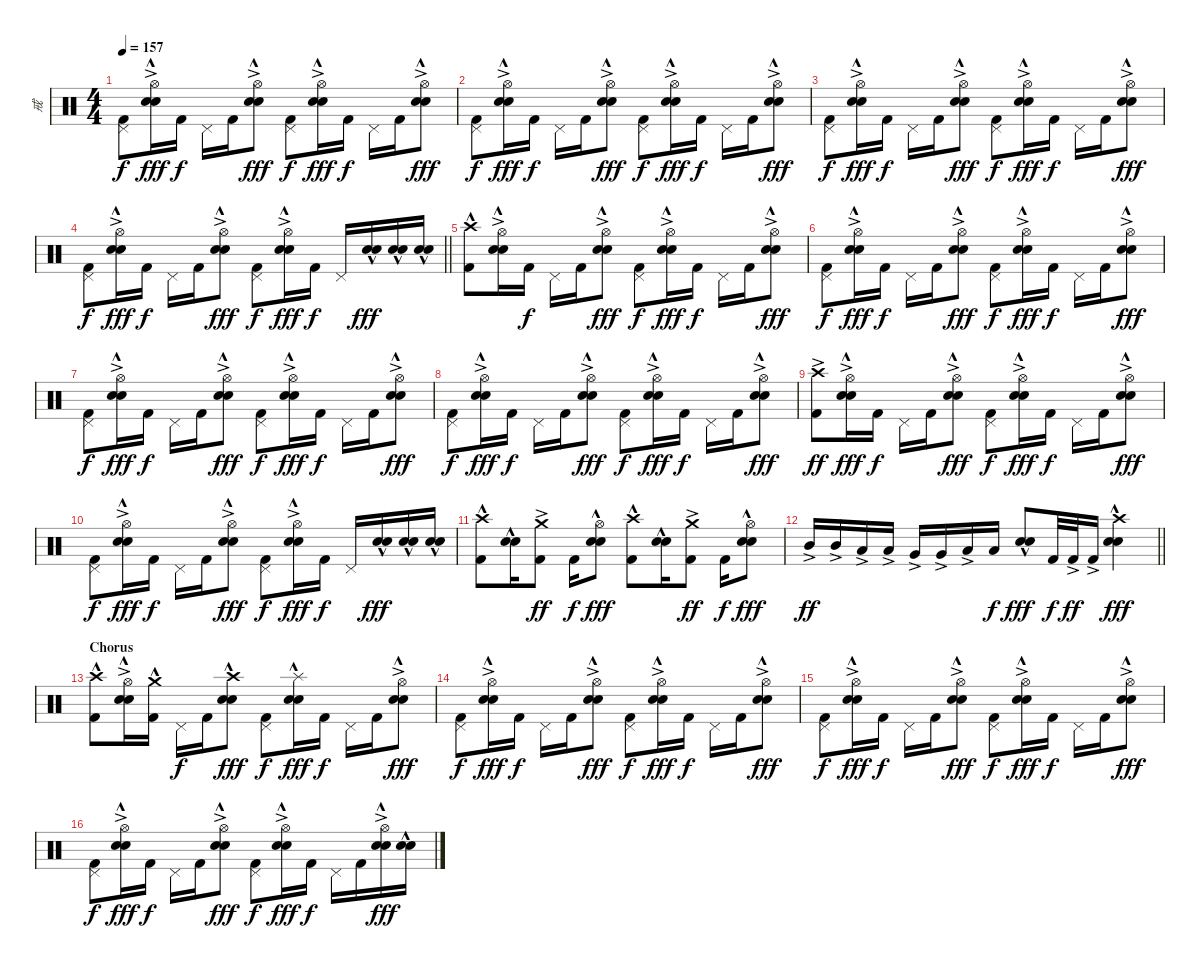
\track ("戒" "戒") {instrument percussion}
\staff {score}
\articulation defaults
\ts (4 4)
\tempo 157
\clef neutral
\ks c
("Pedal Hi-Hat (hit)" "Kick (hit) 2").8{dy f} ("Hi-Hat (open)"{ac} "Electric Snare (hit)"{hac} "Snare (hit) 2").16{dy fff} "Kick (hit) 2".16{dy f} "Pedal Hi-Hat (hit)".16 "Kick (hit) 2".16 ("Hi-Hat (open)"{ac} "Electric Snare (hit)"{hac} "Snare (hit) 2").8{dy fff} ("Pedal Hi-Hat (hit)" "Kick (hit) 2").8{dy f} ("Hi-Hat (open)"{ac} "Electric Snare (hit)"{hac} "Snare (hit) 2").16{dy fff} "Kick (hit) 2".16{dy f} "Pedal Hi-Hat (hit)".16 "Kick (hit) 2".16 ("Hi-Hat (open)"{ac} "Electric Snare (hit)"{hac} "Snare (hit) 2").8{dy fff} |
("Pedal Hi-Hat (hit)" "Kick (hit) 2").8{dy f} ("Hi-Hat (open)"{ac} "Electric Snare (hit)"{hac} "Snare (hit) 2").16{dy fff} "Kick (hit) 2".16{dy f} "Pedal Hi-Hat (hit)".16 "Kick (hit) 2".16 ("Hi-Hat (open)"{ac} "Electric Snare (hit)"{hac} "Snare (hit) 2").8{dy fff} ("Pedal Hi-Hat (hit)" "Kick (hit) 2").8{dy f} ("Hi-Hat (open)"{ac} "Electric Snare (hit)"{hac} "Snare (hit) 2").16{dy fff} "Kick (hit) 2".16{dy f} "Pedal Hi-Hat (hit)".16 "Kick (hit) 2".16 ("Hi-Hat (open)"{ac} "Electric Snare (hit)"{hac} "Snare (hit) 2").8{dy fff} |
("Pedal Hi-Hat (hit)" "Kick (hit) 2").8{dy f} ("Hi-Hat (open)"{ac} "Electric Snare (hit)"{hac} "Snare (hit) 2").16{dy fff} "Kick (hit) 2".16{dy f} "Pedal Hi-Hat (hit)".16 "Kick (hit) 2".16 ("Hi-Hat (open)"{ac} "Electric Snare (hit)"{hac} "Snare (hit) 2").8{dy fff} ("Pedal Hi-Hat (hit)" "Kick (hit) 2").8{dy f} ("Hi-Hat (open)"{ac} "Electric Snare (hit)"{hac} "Snare (hit) 2").16{dy fff} "Kick (hit) 2".16{dy f} "Pedal Hi-Hat (hit)".16 "Kick (hit) 2".16 ("Hi-Hat (open)"{ac} "Electric Snare (hit)"{hac} "Snare (hit) 2").8{dy fff} |
\barLineRight lightlight
("Pedal Hi-Hat (hit)" "Kick (hit) 2").8{dy f} ("Hi-Hat (open)"{ac} "Electric Snare (hit)"{hac} "Snare (hit) 2").16{dy fff} "Kick (hit) 2".16{dy f} "Pedal Hi-Hat (hit)".16 "Kick (hit) 2".16 ("Hi-Hat (open)"{ac} "Electric Snare (hit)"{hac} "Snare (hit) 2").8{dy fff} ("Pedal Hi-Hat (hit)" "Kick (hit) 2").8{dy f} ("Hi-Hat (open)"{ac} "Electric Snare (hit)"{hac} "Snare (hit) 2").16{dy fff} "Kick (hit) 2".16{dy f} "Pedal Hi-Hat (hit)".16 ("Electric Snare (hit)"{hac} "Snare (hit) 2").16{dy fff} ("Electric Snare (hit)"{hac} "Snare (hit) 2").16 ("Electric Snare (hit)"{hac} "Snare (hit) 2").16 |
\section ("" "")
("Crash high (hit)"{hac} "Kick (hit) 2").8 ("Hi-Hat (open)"{ac} "Electric Snare (hit)"{hac} "Snare (hit) 2").16 "Kick (hit) 2".16{dy f} "Pedal Hi-Hat (hit)".16 "Kick (hit) 2".16 ("Hi-Hat (open)"{ac} "Electric Snare (hit)"{hac} "Snare (hit) 2").8{dy fff} ("Pedal Hi-Hat (hit)" "Kick (hit) 2").8{dy f} ("Hi-Hat (open)"{ac} "Electric Snare (hit)"{hac} "Snare (hit) 2").16{dy fff} "Kick (hit) 2".16{dy f} "Pedal Hi-Hat (hit)".16 "Kick (hit) 2".16 ("Hi-Hat (open)"{ac} "Electric Snare (hit)"{hac} "Snare (hit) 2").8{dy fff} |
("Pedal Hi-Hat (hit)" "Kick (hit) 2").8{dy f} ("Hi-Hat (open)"{ac} "Electric Snare (hit)"{hac} "Snare (hit) 2").16{dy fff} "Kick (hit) 2".16{dy f} "Pedal Hi-Hat (hit)".16 "Kick (hit) 2".16 ("Hi-Hat (open)"{ac} "Electric Snare (hit)"{hac} "Snare (hit) 2").8{dy fff} ("Pedal Hi-Hat (hit)" "Kick (hit) 2").8{dy f} ("Hi-Hat (open)"{ac} "Electric Snare (hit)"{hac} "Snare (hit) 2").16{dy fff} "Kick (hit) 2".16{dy f} "Pedal Hi-Hat (hit)".16 "Kick (hit) 2".16 ("Hi-Hat (open)"{ac} "Electric Snare (hit)"{hac} "Snare (hit) 2").8{dy fff} |
("Pedal Hi-Hat (hit)" "Kick (hit) 2").8{dy f} ("Hi-Hat (open)"{ac} "Electric Snare (hit)"{hac} "Snare (hit) 2").16{dy fff} "Kick (hit) 2".16{dy f} "Pedal Hi-Hat (hit)".16 "Kick (hit) 2".16 ("Hi-Hat (open)"{ac} "Electric Snare (hit)"{hac} "Snare (hit) 2").8{dy fff} ("Pedal Hi-Hat (hit)" "Kick (hit) 2").8{dy f} ("Hi-Hat (open)"{ac} "Electric Snare (hit)"{hac} "Snare (hit) 2").16{dy fff} "Kick (hit) 2".16{dy f} "Pedal Hi-Hat (hit)".16 "Kick (hit) 2".16 ("Hi-Hat (open)"{ac} "Electric Snare (hit)"{hac} "Snare (hit) 2").8{dy fff} |
("Pedal Hi-Hat (hit)" "Kick (hit) 2").8{dy f} ("Hi-Hat (open)"{ac} "Electric Snare (hit)"{hac} "Snare (hit) 2").16{dy fff} "Kick (hit) 2".16{dy f} "Pedal Hi-Hat (hit)".16 "Kick (hit) 2".16 ("Hi-Hat (open)"{ac} "Electric Snare (hit)"{hac} "Snare (hit) 2").8{dy fff} ("Pedal Hi-Hat (hit)" "Kick (hit) 2").8{dy f} ("Hi-Hat (open)"{ac} "Electric Snare (hit)"{hac} "Snare (hit) 2").16{dy fff} "Kick (hit) 2".16{dy f} "Pedal Hi-Hat (hit)".16 "Kick (hit) 2".16 ("Hi-Hat (open)"{ac} "Electric Snare (hit)"{hac} "Snare (hit) 2").8{dy fff} |
("Crash high (hit)"{ac} "Kick (hit) 2").8{dy ff} ("Hi-Hat (open)"{ac} "Electric Snare (hit)"{hac} "Snare (hit) 2").16{dy fff} "Kick (hit) 2".16{dy f} "Pedal Hi-Hat (hit)".16 "Kick (hit) 2".16 ("Hi-Hat (open)"{ac} "Electric Snare (hit)"{hac} "Snare (hit) 2").8{dy fff} ("Pedal Hi-Hat (hit)" "Kick (hit) 2").8{dy f} ("Hi-Hat (open)"{ac} "Electric Snare (hit)"{hac} "Snare (hit) 2").16{dy fff} "Kick (hit) 2".16{dy f} "Pedal Hi-Hat (hit)".16 "Kick (hit) 2".16 ("Hi-Hat (open)"{ac} "Electric Snare (hit)"{hac} "Snare (hit) 2").8{dy fff} |
("Pedal Hi-Hat (hit)" "Kick (hit) 2").8{dy f} ("Hi-Hat (open)"{ac} "Electric Snare (hit)"{hac} "Snare (hit) 2").16{dy fff} "Kick (hit) 2".16{dy f} "Pedal Hi-Hat (hit)".16 "Kick (hit) 2".16 ("Hi-Hat (open)"{ac} "Electric Snare (hit)"{hac} "Snare (hit) 2").8{dy fff} ("Pedal Hi-Hat (hit)" "Kick (hit) 2").8{dy f} ("Hi-Hat (open)"{ac} "Electric Snare (hit)"{hac} "Snare (hit) 2").16{dy fff} "Kick (hit) 2".16{dy f} "Pedal Hi-Hat (hit)".16 ("Electric Snare (hit)"{hac} "Snare (hit) 2").16{dy fff} ("Electric Snare (hit)"{hac} "Snare (hit) 2").16 ("Electric Snare (hit)"{hac} "Snare (hit) 2").16 |
("Crash high (hit)"{hac} "Kick (hit) 2").8 ("Electric Snare (hit)"{hac} "Snare (hit) 2").16 ("Crash medium (hit)"{ac} "Kick (hit) 2").8{dy ff} "Kick (hit) 2".16{dy f} ("Hi-Hat (open)" "Electric Snare (hit)"{hac} "Snare (hit) 2").8{dy fff} ("Crash high (hit)"{hac} "Kick (hit) 2").8 ("Electric Snare (hit)"{hac} "Snare (hit) 2").16 ("Crash medium (hit)"{ac} "Kick (hit) 2").8{dy ff} "Kick (hit) 2".16{dy f} ("Hi-Hat (open)" "Electric Snare (hit)"{hac} "Snare (hit) 2").8{dy fff} |
\barLineRight lightlight "Mid Tom (hit)"{ac}.16{dy ff} "Mid Tom (hit)"{ac}.16 "Low Tom (hit)"{ac}.16 "Low Tom (hit)"{ac}.16 "Very Low Tom (hit)"{ac}.16 "Very Low Tom (hit)"{ac}.16 "Low Floor Tom (hit)"{ac}.16 "Low Floor Tom (hit)".16{dy f}
("Electric Snare (hit)"{hac} "Snare (hit) 2").8{dy fff} "Kick (hit) 2".32{dy f} "Kick (hit) 2"{ac}.32{dy ff} "Kick (hit) 2"{ac}.16 ("Crash high (hit)" "Electric Snare (hit)"{hac} "Snare (hit) 2").4{dy fff} |
\section ("" "Chorus")
("Crash high (hit)"{hac} "Kick (hit) 2").8 ("Hi-Hat (open)"{ac} "Electric Snare (hit)"{hac} "Snare (hit) 2").16 ("Crash medium (hit)"{hac} "Kick (hit) 2").16 "Pedal Hi-Hat (hit)".16{dy f} "Kick (hit) 2".16 ("Crash high (hit)"{hac} "Electric Snare (hit)"{hac} "Snare (hit) 2").8{dy fff} ("Pedal Hi-Hat (hit)" "Kick (hit) 2").8{dy f} ("Splash (hit)"{hac} "Electric Snare (hit)"{hac} "Snare (hit) 2").16{dy fff} "Kick (hit) 2".16{dy f} "Pedal Hi-Hat (hit)".16 "Kick (hit) 2".16 ("Hi-Hat (open)"{ac} "Electric Snare (hit)"{hac} "Snare (hit) 2").8{dy fff} |
("Pedal Hi-Hat (hit)" "Kick (hit) 2").8{dy f} ("Hi-Hat (open)"{ac} "Electric Snare (hit)"{hac} "Snare (hit) 2").16{dy fff} "Kick (hit) 2".16{dy f} "Pedal Hi-Hat (hit)".16 "Kick (hit) 2".16 ("Hi-Hat (open)"{ac} "Electric Snare (hit)"{hac} "Snare (hit) 2").8{dy fff} ("Pedal Hi-Hat (hit)" "Kick (hit) 2").8{dy f} ("Hi-Hat (open)"{ac} "Electric Snare (hit)"{hac} "Snare (hit) 2").16{dy fff} "Kick (hit) 2".16{dy f} "Pedal Hi-Hat (hit)".16 "Kick (hit) 2".16 ("Hi-Hat (open)"{ac} "Electric Snare (hit)"{hac} "Snare (hit) 2").8{dy fff} |
("Pedal Hi-Hat (hit)" "Kick (hit) 2").8{dy f} ("Hi-Hat (open)"{ac} "Electric Snare (hit)"{hac} "Snare (hit) 2").16{dy fff} "Kick (hit) 2".16{dy f} "Pedal Hi-Hat (hit)".16 "Kick (hit) 2".16 ("Hi-Hat (open)"{ac} "Electric Snare (hit)"{hac} "Snare (hit) 2").8{dy fff} ("Pedal Hi-Hat (hit)" "Kick (hit) 2").8{dy f} ("Hi-Hat (open)"{ac} "Electric Snare (hit)"{hac} "Snare (hit) 2").16{dy fff} "Kick (hit) 2".16{dy f} "Pedal Hi-Hat (hit)".16 "Kick (hit) 2".16 ("Hi-Hat (open)"{ac} "Electric Snare (hit)"{hac} "Snare (hit) 2").8{dy fff} |
("Pedal Hi-Hat (hit)" "Kick (hit) 2").8{dy f} ("Hi-Hat (open)"{ac} "Electric Snare (hit)"{hac} "Snare (hit) 2").16{dy fff} "Kick (hit) 2".16{dy f} "Pedal Hi-Hat (hit)".16 "Kick (hit) 2".16 ("Hi-Hat (open)"{ac} "Electric Snare (hit)"{hac} "Snare (hit) 2").8{dy fff} ("Pedal Hi-Hat (hit)" "Kick (hit) 2").8{dy f} ("Hi-Hat (open)"{ac} "Electric Snare (hit)"{hac} "Snare (hit) 2").16{dy fff} "Kick (hit) 2".16{dy f} "Pedal Hi-Hat (hit)".16 "Kick (hit) 2".16 ("Hi-Hat (open)"{ac} "Electric Snare (hit)"{hac} "Snare (hit) 2").16{dy fff} ("Electric Snare (hit)"{hac} "Snare (hit) 2").16
